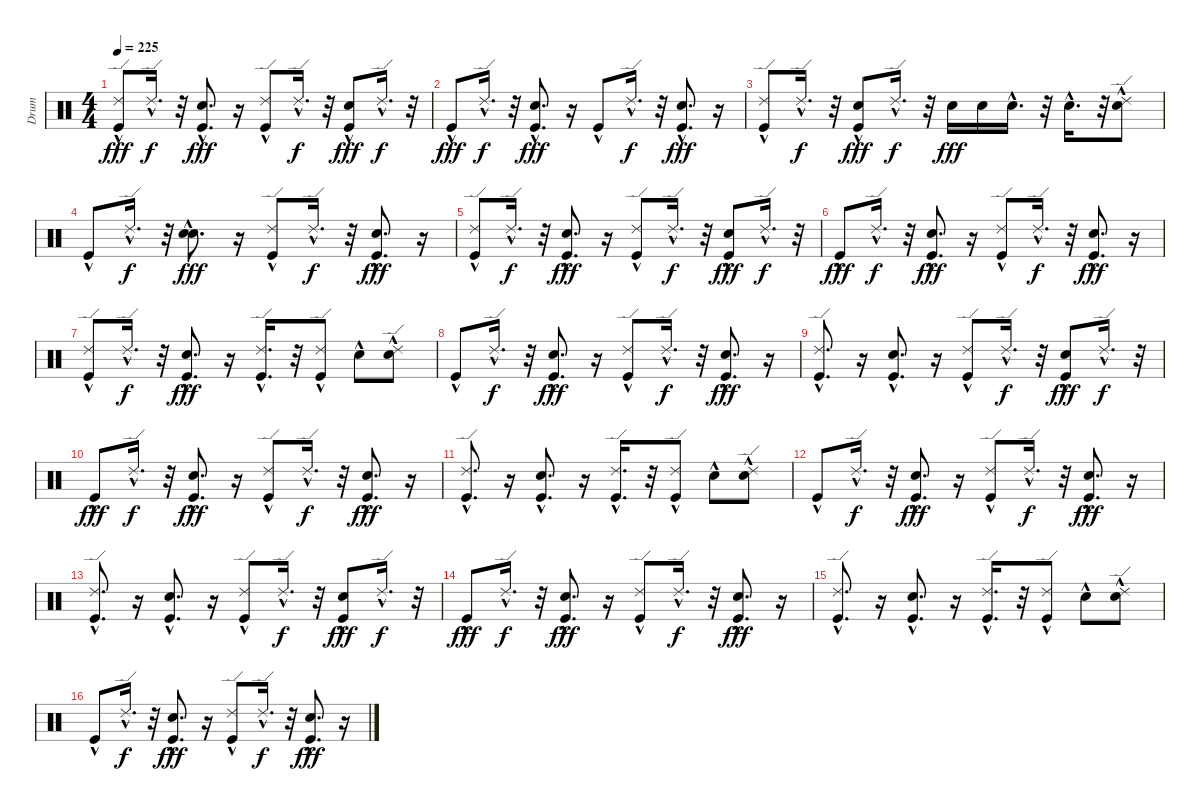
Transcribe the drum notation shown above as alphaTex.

\track ("Drum" "Drum") {instrument percussion}
\staff {score}
\articulation defaults
\ts (4 4)
\tempo 225
\clef neutral
\ks c
("Kick (hit)"{hac} "Ride (edge) 2"{hac}).8{dy fff} "Ride (edge) 2"{hac}.16{d dy f} r.32 ("Kick (hit)"{hac} "Electric Snare (hit)"{hac}).8{d dy fff} r.16 ("Kick (hit)"{hac} "Ride (edge) 2"{hac}).8 "Ride (edge) 2"{hac}.16{d dy f} r.32 ("Kick (hit)"{hac} "Electric Snare (hit)"{hac}).8{dy fff} "Ride (edge) 2"{hac}.16{d dy f} r.32 |
"Kick (hit)"{hac}.8{dy fff} "Ride (edge) 2"{hac}.16{d dy f} r.32 ("Kick (hit)"{hac} "Electric Snare (hit)"{hac}).8{d dy fff} r.16 "Kick (hit)"{hac}.8 "Ride (edge) 2"{hac}.16{d dy f} r.32 ("Kick (hit)"{hac} "Electric Snare (hit)"{hac}).8{d dy fff} r.16 |
("Kick (hit)"{hac} "Ride (edge) 2"{hac}).8 "Ride (edge) 2"{hac}.16{d dy f} r.32 ("Kick (hit)"{hac} "Electric Snare (hit)"{hac}).8{dy fff} "Ride (edge) 2"{hac}.16{d dy f} r.32 "Electric Snare (hit)".16{dy fff} "Electric Snare (hit)".16 "Electric Snare (hit)"{hac}.16{d} r.32 "Electric Snare (hit)"{hac}.16{d} r.32 ("Snare (hit) 2" "Ride (edge) 2"{hac}).8 |
"Kick (hit)"{hac}.8 "Ride (edge) 2"{hac}.16{d dy f} r.32 ("Snare (hit) 2"{hac} "Electric Snare (hit)"{hac}).8{d dy fff} r.16 ("Kick (hit)"{hac} "Ride (edge) 2"{hac}).8 "Ride (edge) 2"{hac}.16{d dy f} r.32 ("Kick (hit)"{hac} "Electric Snare (hit)"{hac}).8{d dy fff} r.16 |
("Kick (hit)"{hac} "Ride (edge) 2"{hac}).8 "Ride (edge) 2"{hac}.16{d dy f} r.32 ("Kick (hit)"{hac} "Electric Snare (hit)"{hac}).8{d dy fff} r.16 ("Kick (hit)"{hac} "Ride (edge) 2"{hac}).8 "Ride (edge) 2"{hac}.16{d dy f} r.32 ("Kick (hit)"{hac} "Electric Snare (hit)"{hac}).8{dy fff} "Ride (edge) 2"{hac}.16{d dy f} r.32 |
"Kick (hit)"{hac}.8{dy fff} "Ride (edge) 2"{hac}.16{d dy f} r.32 ("Kick (hit)"{hac} "Electric Snare (hit)"{hac}).8{d dy fff} r.16 ("Kick (hit)"{hac} "Ride (edge) 2"{hac}).8 "Ride (edge) 2"{hac}.16{d dy f} r.32 ("Kick (hit)"{hac} "Electric Snare (hit)"{hac}).8{d dy fff} r.16 |
("Kick (hit)"{hac} "Ride (edge) 2"{hac}).8 "Ride (edge) 2"{hac}.16{d dy f} r.32 ("Kick (hit)"{hac} "Electric Snare (hit)"{hac}).8{d dy fff} r.16 ("Kick (hit)"{hac} "Ride (edge) 2"{hac}).16{d} r.32 ("Kick (hit)"{hac} "Ride (edge) 2"{hac}).8 "Electric Snare (hit)"{hac}.8 ("Snare (hit) 2" "Ride (edge) 2"{hac}).8 |
"Kick (hit)"{hac}.8 "Ride (edge) 2"{hac}.16{d dy f} r.32 ("Kick (hit)"{hac} "Electric Snare (hit)"{hac}).8{d dy fff} r.16 ("Kick (hit)"{hac} "Ride (edge) 2"{hac}).8 "Ride (edge) 2"{hac}.16{d dy f} r.32 ("Kick (hit)"{hac} "Electric Snare (hit)"{hac}).8{d dy fff} r.16 |
("Kick (hit)"{hac} "Ride (edge) 2"{hac}).8{d} r.16 ("Kick (hit)"{hac} "Electric Snare (hit)"{hac}).8{d} r.16 ("Kick (hit)"{hac} "Ride (edge) 2"{hac}).8 "Ride (edge) 2"{hac}.16{d dy f} r.32 ("Kick (hit)"{hac} "Electric Snare (hit)"{hac}).8{dy fff} "Ride (edge) 2"{hac}.16{d dy f} r.32 |
"Kick (hit)"{hac}.8{dy fff} "Ride (edge) 2"{hac}.16{d dy f} r.32 ("Kick (hit)"{hac} "Electric Snare (hit)"{hac}).8{d dy fff} r.16 ("Kick (hit)"{hac} "Ride (edge) 2"{hac}).8 "Ride (edge) 2"{hac}.16{d dy f} r.32 ("Kick (hit)"{hac} "Electric Snare (hit)"{hac}).8{d dy fff} r.16 |
("Kick (hit)"{hac} "Ride (edge) 2"{hac}).8{d} r.16 ("Kick (hit)"{hac} "Electric Snare (hit)"{hac}).8{d} r.16 ("Kick (hit)"{hac} "Ride (edge) 2"{hac}).16{d} r.32 ("Kick (hit)"{hac} "Ride (edge) 2"{hac}).8 "Electric Snare (hit)"{hac}.8 ("Snare (hit) 2" "Ride (edge) 2"{hac}).8 |
"Kick (hit)"{hac}.8 "Ride (edge) 2"{hac}.16{d dy f} r.32 ("Kick (hit)"{hac} "Electric Snare (hit)"{hac}).8{d dy fff} r.16 ("Kick (hit)"{hac} "Ride (edge) 2"{hac}).8 "Ride (edge) 2"{hac}.16{d dy f} r.32 ("Kick (hit)"{hac} "Electric Snare (hit)"{hac}).8{d dy fff} r.16 |
("Kick (hit)"{hac} "Ride (edge) 2"{hac}).8{d} r.16 ("Kick (hit)"{hac} "Electric Snare (hit)"{hac}).8{d} r.16 ("Kick (hit)"{hac} "Ride (edge) 2"{hac}).8 "Ride (edge) 2"{hac}.16{d dy f} r.32 ("Kick (hit)"{hac} "Electric Snare (hit)"{hac}).8{dy fff} "Ride (edge) 2"{hac}.16{d dy f} r.32 |
"Kick (hit)"{hac}.8{dy fff} "Ride (edge) 2"{hac}.16{d dy f} r.32 ("Kick (hit)"{hac} "Electric Snare (hit)"{hac}).8{d dy fff} r.16 ("Kick (hit)"{hac} "Ride (edge) 2"{hac}).8 "Ride (edge) 2"{hac}.16{d dy f} r.32 ("Kick (hit)"{hac} "Electric Snare (hit)"{hac}).8{d dy fff} r.16 |
("Kick (hit)"{hac} "Ride (edge) 2"{hac}).8{d} r.16 ("Kick (hit)"{hac} "Electric Snare (hit)"{hac}).8{d} r.16 ("Kick (hit)"{hac} "Ride (edge) 2"{hac}).16{d} r.32 ("Kick (hit)"{hac} "Ride (edge) 2"{hac}).8 "Electric Snare (hit)"{hac}.8 ("Snare (hit) 2" "Ride (edge) 2"{hac}).8 |
"Kick (hit)"{hac}.8 "Ride (edge) 2"{hac}.16{d dy f} r.32 ("Kick (hit)"{hac} "Electric Snare (hit)"{hac}).8{d dy fff} r.16 ("Kick (hit)"{hac} "Ride (edge) 2"{hac}).8 "Ride (edge) 2"{hac}.16{d dy f} r.32 ("Kick (hit)"{hac} "Electric Snare (hit)"{hac}).8{d dy fff} r.16
